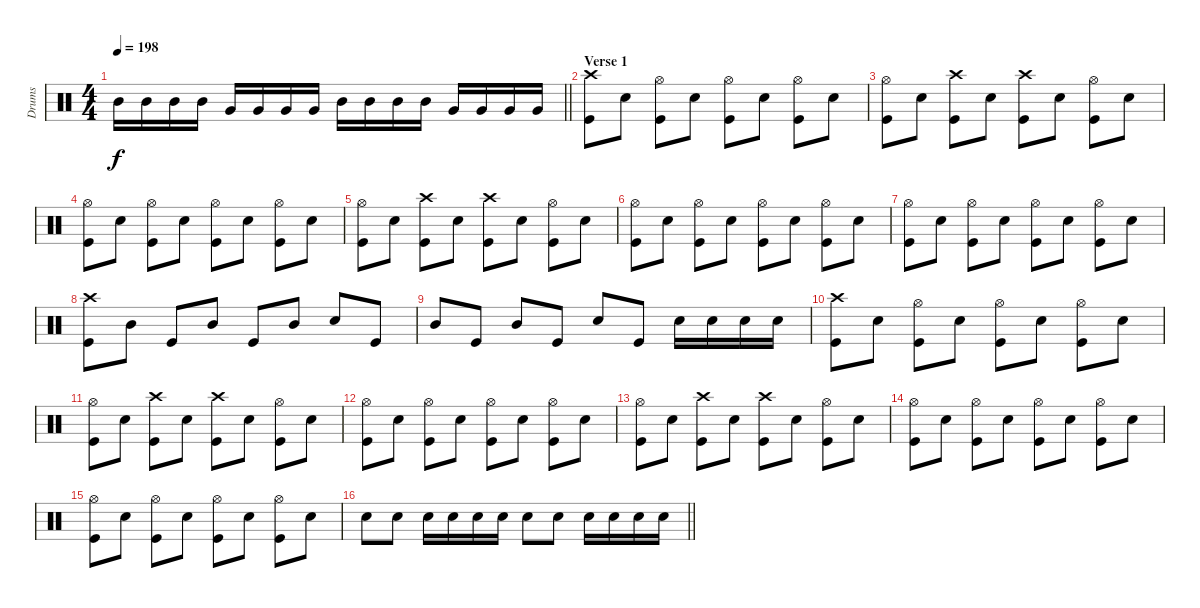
\track ("Drums" "Drums") {instrument percussion}
\staff {score}
\articulation defaults
\ts (4 4)
\tempo 198
\clef neutral
\barLineRight lightlight
\ks c "Mid Tom (hit)".16{dy f} "Mid Tom (hit)".16 "Mid Tom (hit)".16 "Mid Tom (hit)".16 "Very Low Tom (hit)".16 "Very Low Tom (hit)".16 "Very Low Tom (hit)".16 "Very Low Tom (hit)".16 "Mid Tom (hit)".16 "Mid Tom (hit)".16 "Mid Tom (hit)".16 "Mid Tom (hit)".16 "Very Low Tom (hit)".16 "Very Low Tom (hit)".16 "Very Low Tom (hit)".16 "Very Low Tom (hit)".16
|
\section ("" "Verse 1")
("Crash high (hit)" "Kick (hit)").8 "Electric Snare (hit)".8 ("Hi-Hat (open)" "Kick (hit)").8 "Electric Snare (hit)".8 ("Hi-Hat (open)" "Kick (hit)").8 "Electric Snare (hit)".8 ("Hi-Hat (open)" "Kick (hit)").8 "Electric Snare (hit)".8 |
("Hi-Hat (open)" "Kick (hit)").8 "Electric Snare (hit)".8 ("Crash high (hit)" "Kick (hit)").8 "Electric Snare (hit)".8 ("Crash high (hit)" "Kick (hit)").8 "Electric Snare (hit)".8 ("Hi-Hat (open)" "Kick (hit)").8 "Electric Snare (hit)".8 |
("Hi-Hat (open)" "Kick (hit)").8 "Electric Snare (hit)".8 ("Hi-Hat (open)" "Kick (hit)").8 "Electric Snare (hit)".8 ("Hi-Hat (open)" "Kick (hit)").8 "Electric Snare (hit)".8 ("Hi-Hat (open)" "Kick (hit)").8 "Electric Snare (hit)".8 |
("Hi-Hat (open)" "Kick (hit)").8 "Electric Snare (hit)".8 ("Crash high (hit)" "Kick (hit)").8 "Electric Snare (hit)".8 ("Crash high (hit)" "Kick (hit)").8 "Electric Snare (hit)".8 ("Hi-Hat (open)" "Kick (hit)").8 "Electric Snare (hit)".8 |
("Hi-Hat (open)" "Kick (hit)").8 "Electric Snare (hit)".8 ("Hi-Hat (open)" "Kick (hit)").8 "Electric Snare (hit)".8 ("Hi-Hat (open)" "Kick (hit)").8 "Electric Snare (hit)".8 ("Hi-Hat (open)" "Kick (hit)").8 "Electric Snare (hit)".8 |
("Hi-Hat (open)" "Kick (hit)").8 "Electric Snare (hit)".8 ("Hi-Hat (open)" "Kick (hit)").8 "Electric Snare (hit)".8 ("Hi-Hat (open)" "Kick (hit)").8 "Electric Snare (hit)".8 ("Hi-Hat (open)" "Kick (hit)").8 "Electric Snare (hit)".8 |
("Crash high (hit)" "Kick (hit)").8 "Mid Tom (hit)".8 "Kick (hit)".8 "Mid Tom (hit)".8 "Kick (hit)".8 "Mid Tom (hit)".8 "Electric Snare (hit)".8 "Kick (hit)".8 |
"Mid Tom (hit)".8 "Kick (hit)".8 "Mid Tom (hit)".8 "Kick (hit)".8 "Electric Snare (hit)".8 "Kick (hit)".8 "Electric Snare (hit)".16 "Electric Snare (hit)".16 "Electric Snare (hit)".16 "Electric Snare (hit)".16 |
("Crash high (hit)" "Kick (hit)").8 "Electric Snare (hit)".8 ("Hi-Hat (open)" "Kick (hit)").8 "Electric Snare (hit)".8 ("Hi-Hat (open)" "Kick (hit)").8 "Electric Snare (hit)".8 ("Hi-Hat (open)" "Kick (hit)").8 "Electric Snare (hit)".8 |
("Hi-Hat (open)" "Kick (hit)").8 "Electric Snare (hit)".8 ("Crash high (hit)" "Kick (hit)").8 "Electric Snare (hit)".8 ("Crash high (hit)" "Kick (hit)").8 "Electric Snare (hit)".8 ("Hi-Hat (open)" "Kick (hit)").8 "Electric Snare (hit)".8 |
("Hi-Hat (open)" "Kick (hit)").8 "Electric Snare (hit)".8 ("Hi-Hat (open)" "Kick (hit)").8 "Electric Snare (hit)".8 ("Hi-Hat (open)" "Kick (hit)").8 "Electric Snare (hit)".8 ("Hi-Hat (open)" "Kick (hit)").8 "Electric Snare (hit)".8 |
("Hi-Hat (open)" "Kick (hit)").8 "Electric Snare (hit)".8 ("Crash high (hit)" "Kick (hit)").8 "Electric Snare (hit)".8 ("Crash high (hit)" "Kick (hit)").8 "Electric Snare (hit)".8 ("Hi-Hat (open)" "Kick (hit)").8 "Electric Snare (hit)".8 |
("Hi-Hat (open)" "Kick (hit)").8 "Electric Snare (hit)".8 ("Hi-Hat (open)" "Kick (hit)").8 "Electric Snare (hit)".8 ("Hi-Hat (open)" "Kick (hit)").8 "Electric Snare (hit)".8 ("Hi-Hat (open)" "Kick (hit)").8 "Electric Snare (hit)".8 |
("Hi-Hat (open)" "Kick (hit)").8 "Electric Snare (hit)".8 ("Hi-Hat (open)" "Kick (hit)").8 "Electric Snare (hit)".8 ("Hi-Hat (open)" "Kick (hit)").8 "Electric Snare (hit)".8 ("Hi-Hat (open)" "Kick (hit)").8 "Electric Snare (hit)".8 |
\barLineRight lightlight "Electric Snare (hit)".8 "Electric Snare (hit)".8 "Electric Snare (hit)".16 "Electric Snare (hit)".16 "Electric Snare (hit)".16 "Electric Snare (hit)".16 "Electric Snare (hit)".8 "Electric Snare (hit)".8 "Electric Snare (hit)".16 "Electric Snare (hit)".16 "Electric Snare (hit)".16 "Electric Snare (hit)".16
